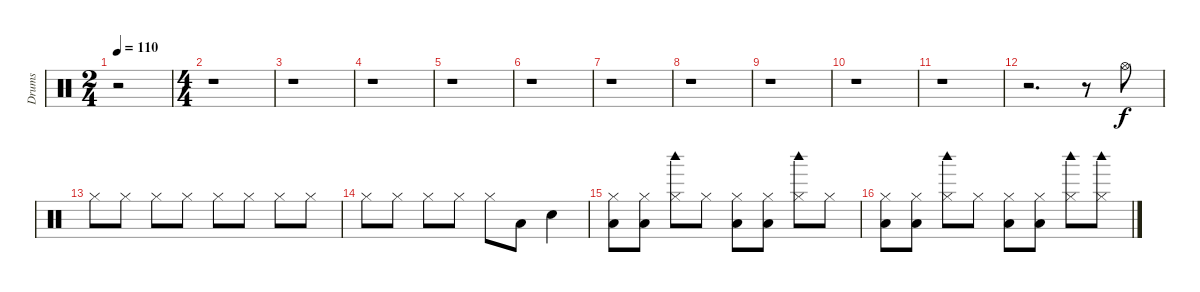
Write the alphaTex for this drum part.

\track ("Drums" "Drums") {instrument percussion}
\staff {score}
\articulation defaults
\ts (2 4)
\tempo 110
\clef neutral
\ks c
r.2{dy f} |
\ts (4 4)
r.1 |
r.1 |
r.1 |
r.1 |
r.1 |
r.1 |
r.1 |
r.1 |
r.1 |
r.1 |
r.2{d} r.8 "Hi-Hat (open)".8 |
"Hi-Hat (closed)".8 "Hi-Hat (closed)".8 "Hi-Hat (closed)".8 "Hi-Hat (closed)".8 "Hi-Hat (closed)".8 "Hi-Hat (closed)".8 "Hi-Hat (closed)".8 "Hi-Hat (closed)".8 |
"Hi-Hat (closed)".8 "Hi-Hat (closed)".8 "Hi-Hat (closed)".8 "Hi-Hat (closed)".8 "Hi-Hat (closed)".8 "Low Floor Tom (hit)".8 "Snare (hit) 2".4 |
("Hi-Hat (closed)" "Low Floor Tom (hit)").8 ("Hi-Hat (closed)" "Low Floor Tom (hit)").8 ("Hi-Hat (closed)" "Woodblock high (hit)").8 "Hi-Hat (closed)".8 ("Hi-Hat (closed)" "Low Floor Tom (hit)").8 ("Hi-Hat (closed)" "Low Floor Tom (hit)").8 ("Hi-Hat (closed)" "Woodblock high (hit)").8 "Hi-Hat (closed)".8 |
("Hi-Hat (closed)" "Low Floor Tom (hit)").8 ("Hi-Hat (closed)" "Low Floor Tom (hit)").8 ("Hi-Hat (closed)" "Woodblock high (hit)").8 "Hi-Hat (closed)".8 ("Hi-Hat (closed)" "Low Floor Tom (hit)").8 ("Hi-Hat (closed)" "Low Floor Tom (hit)").8 ("Hi-Hat (closed)" "Woodblock high (hit)").8 ("Hi-Hat (closed)" "Woodblock high (hit)").8
